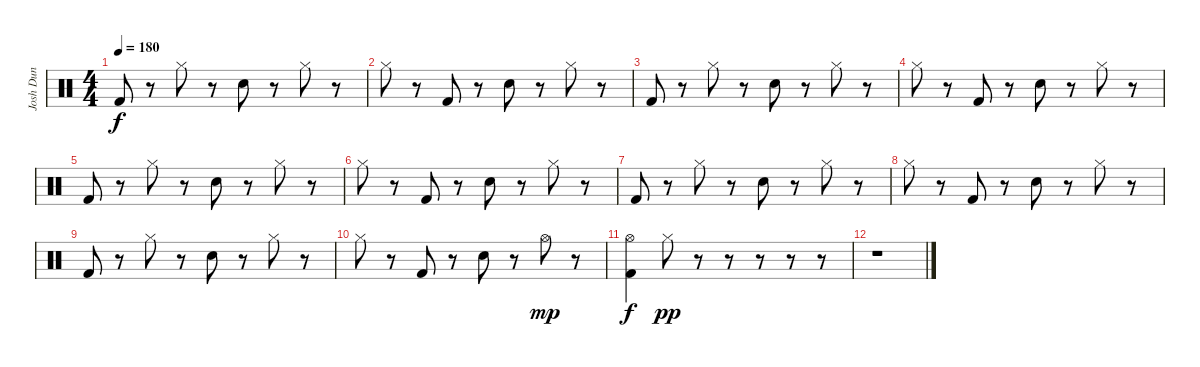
\track ("Josh Dun" "Josh Dun") {instrument percussion}
\staff {score}
\articulation defaults
\ts (4 4)
\tempo 180
\clef neutral
\ks c "Kick (hit) 2".8{dy f}
r.8 "Hi-Hat (closed)".8 r.8 "Snare (hit) 2".8 r.8 "Hi-Hat (closed)".8 r.8 |
"Hi-Hat (closed)".8 r.8 "Kick (hit) 2".8 r.8 "Snare (hit) 2".8 r.8 "Hi-Hat (closed)".8 r.8 |
"Kick (hit) 2".8 r.8 "Hi-Hat (closed)".8 r.8 "Snare (hit) 2".8 r.8 "Hi-Hat (closed)".8 r.8 |
"Hi-Hat (closed)".8 r.8 "Kick (hit) 2".8 r.8 "Snare (hit) 2".8 r.8 "Hi-Hat (closed)".8 r.8 |
"Kick (hit) 2".8 r.8 "Hi-Hat (closed)".8 r.8 "Snare (hit) 2".8 r.8 "Hi-Hat (closed)".8 r.8 |
"Hi-Hat (closed)".8 r.8 "Kick (hit) 2".8 r.8 "Snare (hit) 2".8 r.8 "Hi-Hat (closed)".8 r.8 |
"Kick (hit) 2".8 r.8 "Hi-Hat (closed)".8 r.8 "Snare (hit) 2".8 r.8 "Hi-Hat (closed)".8 r.8 |
"Hi-Hat (closed)".8 r.8 "Kick (hit) 2".8 r.8 "Snare (hit) 2".8 r.8 "Hi-Hat (closed)".8 r.8 |
"Kick (hit) 2".8 r.8 "Hi-Hat (closed)".8 r.8 "Snare (hit) 2".8 r.8 "Hi-Hat (closed)".8 r.8 |
"Hi-Hat (closed)".8 r.8 "Kick (hit) 2".8 r.8 "Snare (hit) 2".8 r.8 "Hi-Hat (open)".8{dy mp} r.8 |
("Hi-Hat (open)" "Kick (hit) 2").4{dy f} "Hi-Hat (closed)".8{dy pp} r.8 r.8 r.8 r.8 r.8 |
r.1
